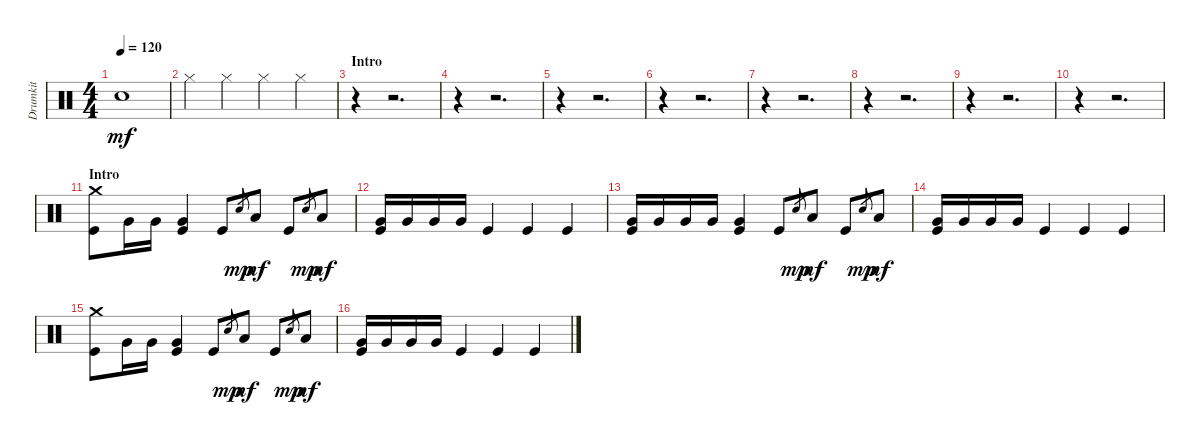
\track ("Drumkit" "Drumkit") {instrument percussion}
\staff {score}
\articulation defaults
\ts (4 4)
\tempo 120
\clef neutral
\ks c "Snare (hit) 2".1{dy mf}
|
"Hi-Hat (closed)".4 "Hi-Hat (closed)".4 "Hi-Hat (closed)".4 "Hi-Hat (closed)".4 |
\section ("" "Intro")
r.4 r.2{d} |
r.4 r.2{d} |
r.4 r.2{d} |
r.4 r.2{d} |
r.4 r.2{d} |
r.4 r.2{d} |
r.4 r.2{d} |
r.4 r.2{d} |
\section ("" "Intro")
("Kick (hit)" "Crash medium (hit)").8 "Very Low Tom (hit)".16 "Very Low Tom (hit)".16 ("Very Low Tom (hit)" "Kick (hit)").4 "Kick (hit)".8 "Snare (hit)".8{gr dy mp} "Low Tom (hit)".8{dy mf} "Kick (hit)".8 "Snare (hit)".8{gr dy mp} "Low Tom (hit)".8{dy mf} |
("Kick (hit)" "Very Low Tom (hit)").16 "Very Low Tom (hit)".16 "Very Low Tom (hit)".16 "Very Low Tom (hit)".16 "Kick (hit)".4 "Kick (hit)".4 "Kick (hit)".4 |
("Kick (hit)" "Very Low Tom (hit)").16 "Very Low Tom (hit)".16 "Very Low Tom (hit)".16 "Very Low Tom (hit)".16 ("Very Low Tom (hit)" "Kick (hit)").4 "Kick (hit)".8 "Snare (hit)".8{gr dy mp} "Low Tom (hit)".8{dy mf} "Kick (hit)".8 "Snare (hit)".8{gr dy mp} "Low Tom (hit)".8{dy mf} |
("Kick (hit)" "Very Low Tom (hit)").16 "Very Low Tom (hit)".16 "Very Low Tom (hit)".16 "Very Low Tom (hit)".16 "Kick (hit)".4 "Kick (hit)".4 "Kick (hit)".4 |
("Kick (hit)" "Crash medium (hit)").8 "Very Low Tom (hit)".16 "Very Low Tom (hit)".16 ("Very Low Tom (hit)" "Kick (hit)").4 "Kick (hit)".8 "Snare (hit)".8{gr dy mp} "Low Tom (hit)".8{dy mf} "Kick (hit)".8 "Snare (hit)".8{gr dy mp} "Low Tom (hit)".8{dy mf} |
("Kick (hit)" "Very Low Tom (hit)").16 "Very Low Tom (hit)".16 "Very Low Tom (hit)".16 "Very Low Tom (hit)".16 "Kick (hit)".4 "Kick (hit)".4 "Kick (hit)".4
